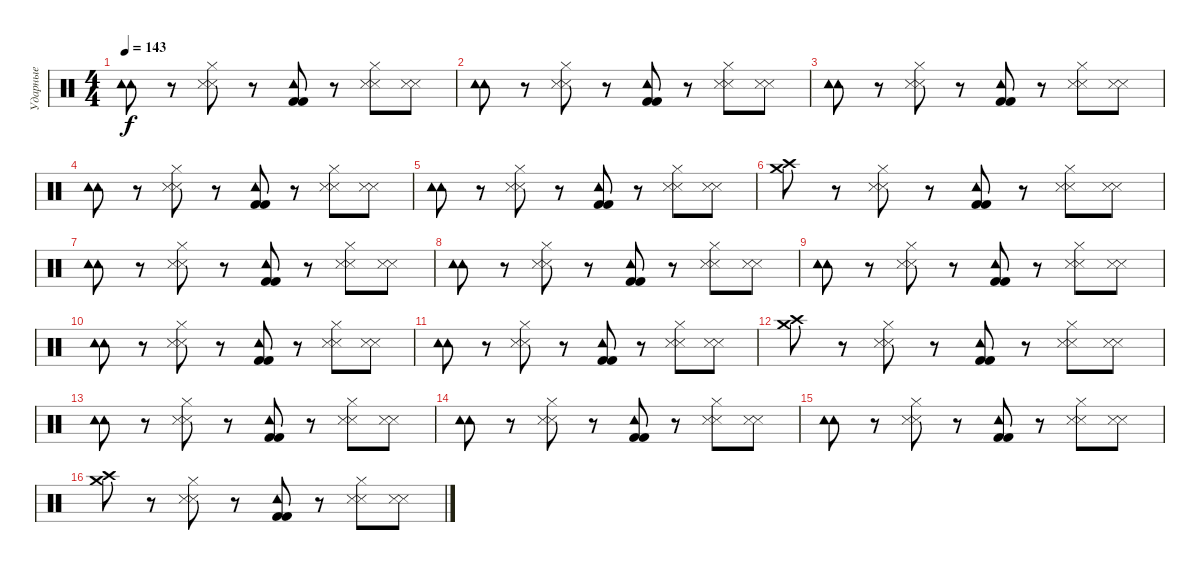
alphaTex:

\track ("Ударные" "Ударные") {instrument percussion}
\staff {score}
\articulation defaults
\ts (4 4)
\tempo 143
\clef neutral
\ks c
("Tambourine (hit)" "Tambourine (hit)").8{dy f} r.8 ("Hi-Hat (closed)" "Metronome (hit)" "Metronome (hit)").8 r.8 ("Tambourine (hit)" "Kick (hit) 2" "Kick (hit) 2").8 r.8 ("Hi-Hat (closed)" "Metronome (hit)" "Metronome (hit)").8 ("Metronome (hit)" "Metronome (hit)").8 |
("Tambourine (hit)" "Tambourine (hit)").8 r.8 ("Hi-Hat (closed)" "Metronome (hit)" "Metronome (hit)").8 r.8 ("Tambourine (hit)" "Kick (hit) 2" "Kick (hit) 2").8 r.8 ("Hi-Hat (closed)" "Metronome (hit)" "Metronome (hit)").8 ("Metronome (hit)" "Metronome (hit)").8 |
("Tambourine (hit)" "Tambourine (hit)").8 r.8 ("Hi-Hat (closed)" "Metronome (hit)" "Metronome (hit)").8 r.8 ("Tambourine (hit)" "Kick (hit) 2" "Kick (hit) 2").8 r.8 ("Hi-Hat (closed)" "Metronome (hit)" "Metronome (hit)").8 ("Metronome (hit)" "Metronome (hit)").8 |
("Tambourine (hit)" "Tambourine (hit)").8 r.8 ("Hi-Hat (closed)" "Metronome (hit)" "Metronome (hit)").8 r.8 ("Tambourine (hit)" "Kick (hit) 2" "Kick (hit) 2").8 r.8 ("Hi-Hat (closed)" "Metronome (hit)" "Metronome (hit)").8 ("Metronome (hit)" "Metronome (hit)").8 |
("Tambourine (hit)" "Tambourine (hit)").8 r.8 ("Hi-Hat (closed)" "Metronome (hit)" "Metronome (hit)").8 r.8 ("Tambourine (hit)" "Kick (hit) 2" "Kick (hit) 2").8 r.8 ("Hi-Hat (closed)" "Metronome (hit)" "Metronome (hit)").8 ("Metronome (hit)" "Metronome (hit)").8 |
("Crash medium (hit)" "Crash high (hit)").8 r.8 ("Hi-Hat (closed)" "Metronome (hit)" "Metronome (hit)").8 r.8 ("Tambourine (hit)" "Kick (hit) 2" "Kick (hit) 2").8 r.8 ("Hi-Hat (closed)" "Metronome (hit)" "Metronome (hit)").8 ("Metronome (hit)" "Metronome (hit)").8 |
("Tambourine (hit)" "Tambourine (hit)").8 r.8 ("Hi-Hat (closed)" "Metronome (hit)" "Metronome (hit)").8 r.8 ("Tambourine (hit)" "Kick (hit) 2" "Kick (hit) 2").8 r.8 ("Hi-Hat (closed)" "Metronome (hit)" "Metronome (hit)").8 ("Metronome (hit)" "Metronome (hit)").8 |
("Tambourine (hit)" "Tambourine (hit)").8 r.8 ("Hi-Hat (closed)" "Metronome (hit)" "Metronome (hit)").8 r.8 ("Tambourine (hit)" "Kick (hit) 2" "Kick (hit) 2").8 r.8 ("Hi-Hat (closed)" "Metronome (hit)" "Metronome (hit)").8 ("Metronome (hit)" "Metronome (hit)").8 |
("Tambourine (hit)" "Tambourine (hit)").8 r.8 ("Hi-Hat (closed)" "Metronome (hit)" "Metronome (hit)").8 r.8 ("Tambourine (hit)" "Kick (hit) 2" "Kick (hit) 2").8 r.8 ("Hi-Hat (closed)" "Metronome (hit)" "Metronome (hit)").8 ("Metronome (hit)" "Metronome (hit)").8 |
("Tambourine (hit)" "Tambourine (hit)").8 r.8 ("Hi-Hat (closed)" "Metronome (hit)" "Metronome (hit)").8 r.8 ("Tambourine (hit)" "Kick (hit) 2" "Kick (hit) 2").8 r.8 ("Hi-Hat (closed)" "Metronome (hit)" "Metronome (hit)").8 ("Metronome (hit)" "Metronome (hit)").8 |
("Tambourine (hit)" "Tambourine (hit)").8 r.8 ("Hi-Hat (closed)" "Metronome (hit)" "Metronome (hit)").8 r.8 ("Tambourine (hit)" "Kick (hit) 2" "Kick (hit) 2").8 r.8 ("Hi-Hat (closed)" "Metronome (hit)" "Metronome (hit)").8 ("Metronome (hit)" "Metronome (hit)").8 |
("Crash medium (hit)" "Crash high (hit)").8 r.8 ("Hi-Hat (closed)" "Metronome (hit)" "Metronome (hit)").8 r.8 ("Tambourine (hit)" "Kick (hit) 2" "Kick (hit) 2").8 r.8 ("Hi-Hat (closed)" "Metronome (hit)" "Metronome (hit)").8 ("Metronome (hit)" "Metronome (hit)").8 |
("Tambourine (hit)" "Tambourine (hit)").8 r.8 ("Hi-Hat (closed)" "Metronome (hit)" "Metronome (hit)").8 r.8 ("Tambourine (hit)" "Kick (hit) 2" "Kick (hit) 2").8 r.8 ("Hi-Hat (closed)" "Metronome (hit)" "Metronome (hit)").8 ("Metronome (hit)" "Metronome (hit)").8 |
("Tambourine (hit)" "Tambourine (hit)").8 r.8 ("Hi-Hat (closed)" "Metronome (hit)" "Metronome (hit)").8 r.8 ("Tambourine (hit)" "Kick (hit) 2" "Kick (hit) 2").8 r.8 ("Hi-Hat (closed)" "Metronome (hit)" "Metronome (hit)").8 ("Metronome (hit)" "Metronome (hit)").8 |
("Tambourine (hit)" "Tambourine (hit)").8 r.8 ("Hi-Hat (closed)" "Metronome (hit)" "Metronome (hit)").8 r.8 ("Tambourine (hit)" "Kick (hit) 2" "Kick (hit) 2").8 r.8 ("Hi-Hat (closed)" "Metronome (hit)" "Metronome (hit)").8 ("Metronome (hit)" "Metronome (hit)").8 |
("Crash medium (hit)" "Crash high (hit)").8 r.8 ("Hi-Hat (closed)" "Metronome (hit)" "Metronome (hit)").8 r.8 ("Tambourine (hit)" "Kick (hit) 2" "Kick (hit) 2").8 r.8 ("Hi-Hat (closed)" "Metronome (hit)" "Metronome (hit)").8 ("Metronome (hit)" "Metronome (hit)").8
